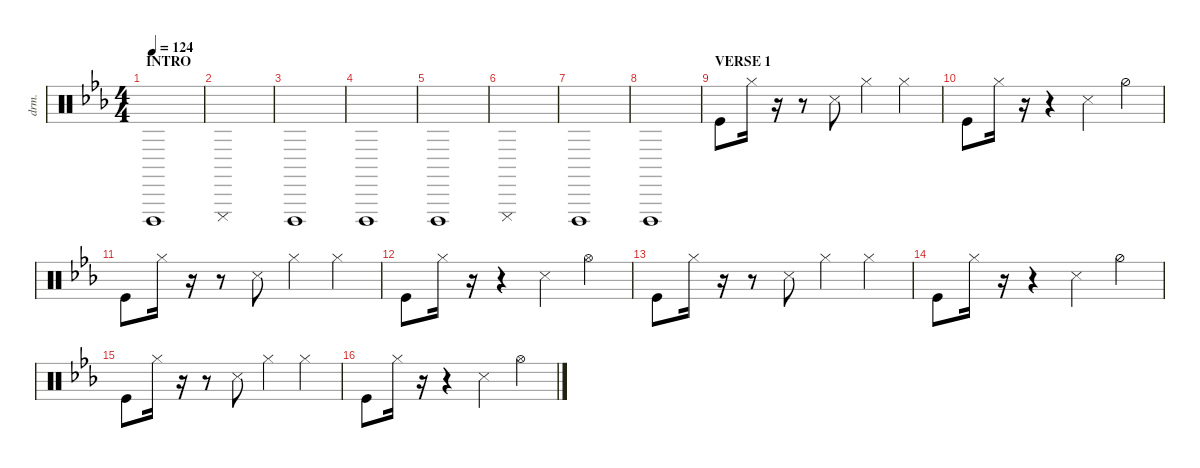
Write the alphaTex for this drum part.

\defaultSystemsLayout 4
\hideDynamics
\bracketExtendMode nobrackets
\otherSystemsTrackNameOrientation horizontal
\track ("Drumkit" "drm.") {instrument percussion}
\staff {score}
\articulation defaults
\ts (4 4)
\section ("" "INTRO")
\tempo 124
\clef neutral
\ks cminor "Cuica (open)"{acc forcenatural}.1{dy mf beam Up}
|
"Cuica (mute)"{acc forcenatural}.1{beam Up} |
"Cuica (open)"{acc forcenatural}.1{beam Up} |
"Cuica (open)"{acc forcenatural}.1{beam Up} |
"Cuica (open)"{acc forcenatural}.1{beam Up} |
"Cuica (mute)"{acc forcenatural}.1{beam Up} |
"Cuica (open)"{acc forcenatural}.1{beam Up} |
"Cuica (open)"{acc forcenatural}.1{beam Up} |
\section ("" "VERSE 1")
"Kick (hit)"{acc forcenatural}.8{beam Down} "Hi-Hat (closed)"{acc forcenatural}.16{beam Down} r.16{beam Down} r.8{beam Down} "Snare (side stick) 3"{acc forcenatural}.8{beam Down} "Hi-Hat (closed)"{acc forcenatural}.4{beam Down} "Hi-Hat (closed)"{acc forcenatural}.4{beam Down} |
"Kick (hit)"{acc forcenatural}.8{beam Down} "Hi-Hat (closed)"{acc forcenatural}.16{beam Down} r.16{beam Down} r.4{beam Down} "Snare (side stick) 3"{acc forcenatural}.4{beam Down} "Hi-Hat (half)"{acc forcenatural}.4{beam Down} |
"Kick (hit)"{acc forcenatural}.8{beam Down} "Hi-Hat (closed)"{acc forcenatural}.16{beam Down} r.16{beam Down} r.8{beam Down} "Snare (side stick) 3"{acc forcenatural}.8{beam Down} "Hi-Hat (closed)"{acc forcenatural}.4{beam Down} "Hi-Hat (closed)"{acc forcenatural}.4{beam Down} |
"Kick (hit)"{acc forcenatural}.8{beam Down} "Hi-Hat (closed)"{acc forcenatural}.16{beam Down} r.16{beam Down} r.4{beam Down} "Snare (side stick) 3"{acc forcenatural}.4{beam Down} "Hi-Hat (open)"{acc forcenatural}.4{beam Down} |
"Kick (hit)"{acc forcenatural}.8{beam Down} "Hi-Hat (closed)"{acc forcenatural}.16{beam Down} r.16{beam Down} r.8{beam Down} "Snare (side stick) 3"{acc forcenatural}.8{beam Down} "Hi-Hat (closed)"{acc forcenatural}.4{beam Down} "Hi-Hat (closed)"{acc forcenatural}.4{beam Down} |
"Kick (hit)"{acc forcenatural}.8{beam Down} "Hi-Hat (closed)"{acc forcenatural}.16{beam Down} r.16{beam Down} r.4{beam Down} "Snare (side stick) 3"{acc forcenatural}.4{beam Down} "Hi-Hat (half)"{acc forcenatural}.4{beam Down} |
"Kick (hit)"{acc forcenatural}.8{beam Down} "Hi-Hat (closed)"{acc forcenatural}.16{beam Down} r.16{beam Down} r.8{beam Down} "Snare (side stick) 3"{acc forcenatural}.8{beam Down} "Hi-Hat (closed)"{acc forcenatural}.4{beam Down} "Hi-Hat (closed)"{acc forcenatural}.4{beam Down} |
"Kick (hit)"{acc forcenatural}.8{beam Down} "Hi-Hat (closed)"{acc forcenatural}.16{beam Down} r.16{beam Down} r.4{beam Down} "Snare (side stick) 3"{acc forcenatural}.4{beam Down} "Hi-Hat (open)"{acc forcenatural}.4{beam Down}
